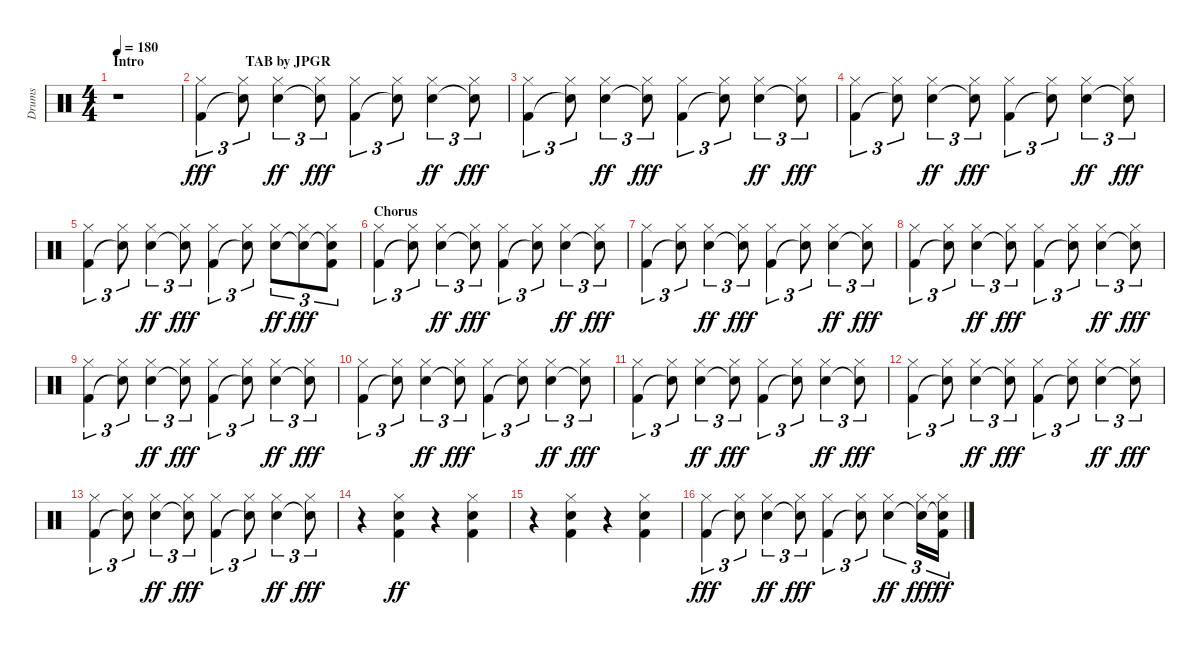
\track ("Drums" "Drums") {instrument percussion}
\staff {score}
\articulation defaults
\ts (4 4)
\section ("" "Intro                             TAB by JPGR")
\tempo 180
\clef neutral
\ks c
r.1{dy fff} |
("Hi-Hat (closed)" "Kick (hit) 2").4{tu (3 2)} ("Hi-Hat (closed)" "Snare (hit)"{t}).8{tu (3 2)} ("Hi-Hat (closed)" "Electric Snare (hit)").4{tu (3 2) dy ff} ("Hi-Hat (closed)" "Snare (hit)"{t}).8{tu (3 2) dy fff} ("Hi-Hat (closed)" "Kick (hit) 2").4{tu (3 2)} ("Hi-Hat (closed)" "Snare (hit)"{t}).8{tu (3 2)} ("Hi-Hat (closed)" "Electric Snare (hit)").4{tu (3 2) dy ff} ("Hi-Hat (closed)" "Snare (hit)"{t}).8{tu (3 2) dy fff} |
("Hi-Hat (closed)" "Kick (hit) 2").4{tu (3 2)} ("Hi-Hat (closed)" "Snare (hit)"{t}).8{tu (3 2)} ("Hi-Hat (closed)" "Electric Snare (hit)").4{tu (3 2) dy ff} ("Hi-Hat (closed)" "Snare (hit)"{t}).8{tu (3 2) dy fff} ("Hi-Hat (closed)" "Kick (hit) 2").4{tu (3 2)} ("Hi-Hat (closed)" "Snare (hit)"{t}).8{tu (3 2)} ("Hi-Hat (closed)" "Electric Snare (hit)").4{tu (3 2) dy ff} ("Hi-Hat (closed)" "Snare (hit)"{t}).8{tu (3 2) dy fff} |
("Hi-Hat (closed)" "Kick (hit) 2").4{tu (3 2)} ("Hi-Hat (closed)" "Snare (hit)"{t}).8{tu (3 2)} ("Hi-Hat (closed)" "Electric Snare (hit)").4{tu (3 2) dy ff} ("Hi-Hat (closed)" "Snare (hit)"{t}).8{tu (3 2) dy fff} ("Hi-Hat (closed)" "Kick (hit) 2").4{tu (3 2)} ("Hi-Hat (closed)" "Snare (hit)"{t}).8{tu (3 2)} ("Hi-Hat (closed)" "Electric Snare (hit)").4{tu (3 2) dy ff} ("Hi-Hat (closed)" "Snare (hit)"{t}).8{tu (3 2) dy fff} |
("Hi-Hat (closed)" "Kick (hit) 2").4{tu (3 2)} ("Hi-Hat (closed)" "Snare (hit)"{t}).8{tu (3 2)} ("Hi-Hat (closed)" "Electric Snare (hit)").4{tu (3 2) dy ff} ("Hi-Hat (closed)" "Snare (hit)"{t}).8{tu (3 2) dy fff} ("Hi-Hat (closed)" "Kick (hit) 2").4{tu (3 2)} ("Hi-Hat (closed)" "Snare (hit)"{t}).8{tu (3 2)} ("Hi-Hat (closed)" "Electric Snare (hit)").8{tu (3 2) dy ff} ("Hi-Hat (closed)" "Snare (hit)"{t}).8{tu (3 2) dy fff} ("Hi-Hat (closed)" "Snare (hit)"{t} "Kick (hit) 2").8{tu (3 2)} |
\section ("" "Chorus")
("Hi-Hat (closed)" "Kick (hit) 2").4{tu (3 2)} ("Hi-Hat (closed)" "Snare (hit)"{t}).8{tu (3 2)} ("Hi-Hat (closed)" "Electric Snare (hit)").4{tu (3 2) dy ff} ("Hi-Hat (closed)" "Snare (hit)"{t}).8{tu (3 2) dy fff} ("Hi-Hat (closed)" "Kick (hit) 2").4{tu (3 2)} ("Hi-Hat (closed)" "Snare (hit)"{t}).8{tu (3 2)} ("Hi-Hat (closed)" "Electric Snare (hit)").4{tu (3 2) dy ff} ("Hi-Hat (closed)" "Snare (hit)"{t}).8{tu (3 2) dy fff} |
("Hi-Hat (closed)" "Kick (hit) 2").4{tu (3 2)} ("Hi-Hat (closed)" "Snare (hit)"{t}).8{tu (3 2)} ("Hi-Hat (closed)" "Electric Snare (hit)").4{tu (3 2) dy ff} ("Hi-Hat (closed)" "Snare (hit)"{t}).8{tu (3 2) dy fff} ("Hi-Hat (closed)" "Kick (hit) 2").4{tu (3 2)} ("Hi-Hat (closed)" "Snare (hit)"{t}).8{tu (3 2)} ("Hi-Hat (closed)" "Electric Snare (hit)").4{tu (3 2) dy ff} ("Hi-Hat (closed)" "Snare (hit)"{t}).8{tu (3 2) dy fff} |
("Hi-Hat (closed)" "Kick (hit) 2").4{tu (3 2)} ("Hi-Hat (closed)" "Snare (hit)"{t}).8{tu (3 2)} ("Hi-Hat (closed)" "Electric Snare (hit)").4{tu (3 2) dy ff} ("Hi-Hat (closed)" "Snare (hit)"{t}).8{tu (3 2) dy fff} ("Hi-Hat (closed)" "Kick (hit) 2").4{tu (3 2)} ("Hi-Hat (closed)" "Snare (hit)"{t}).8{tu (3 2)} ("Hi-Hat (closed)" "Electric Snare (hit)").4{tu (3 2) dy ff} ("Hi-Hat (closed)" "Snare (hit)"{t}).8{tu (3 2) dy fff} |
("Hi-Hat (closed)" "Kick (hit) 2").4{tu (3 2)} ("Hi-Hat (closed)" "Snare (hit)"{t}).8{tu (3 2)} ("Hi-Hat (closed)" "Electric Snare (hit)").4{tu (3 2) dy ff} ("Hi-Hat (closed)" "Snare (hit)"{t}).8{tu (3 2) dy fff} ("Hi-Hat (closed)" "Kick (hit) 2").4{tu (3 2)} ("Hi-Hat (closed)" "Snare (hit)"{t}).8{tu (3 2)} ("Hi-Hat (closed)" "Electric Snare (hit)").4{tu (3 2) dy ff} ("Hi-Hat (closed)" "Snare (hit)"{t}).8{tu (3 2) dy fff} |
("Hi-Hat (closed)" "Kick (hit) 2").4{tu (3 2)} ("Hi-Hat (closed)" "Snare (hit)"{t}).8{tu (3 2)} ("Hi-Hat (closed)" "Electric Snare (hit)").4{tu (3 2) dy ff} ("Hi-Hat (closed)" "Snare (hit)"{t}).8{tu (3 2) dy fff} ("Hi-Hat (closed)" "Kick (hit) 2").4{tu (3 2)} ("Hi-Hat (closed)" "Snare (hit)"{t}).8{tu (3 2)} ("Hi-Hat (closed)" "Electric Snare (hit)").4{tu (3 2) dy ff} ("Hi-Hat (closed)" "Snare (hit)"{t}).8{tu (3 2) dy fff} |
("Hi-Hat (closed)" "Kick (hit) 2").4{tu (3 2)} ("Hi-Hat (closed)" "Snare (hit)"{t}).8{tu (3 2)} ("Hi-Hat (closed)" "Electric Snare (hit)").4{tu (3 2) dy ff} ("Hi-Hat (closed)" "Snare (hit)"{t}).8{tu (3 2) dy fff} ("Hi-Hat (closed)" "Kick (hit) 2").4{tu (3 2)} ("Hi-Hat (closed)" "Snare (hit)"{t}).8{tu (3 2)} ("Hi-Hat (closed)" "Electric Snare (hit)").4{tu (3 2) dy ff} ("Hi-Hat (closed)" "Snare (hit)"{t}).8{tu (3 2) dy fff} |
("Hi-Hat (closed)" "Kick (hit) 2").4{tu (3 2)} ("Hi-Hat (closed)" "Snare (hit)"{t}).8{tu (3 2)} ("Hi-Hat (closed)" "Electric Snare (hit)").4{tu (3 2) dy ff} ("Hi-Hat (closed)" "Snare (hit)"{t}).8{tu (3 2) dy fff} ("Hi-Hat (closed)" "Kick (hit) 2").4{tu (3 2)} ("Hi-Hat (closed)" "Snare (hit)"{t}).8{tu (3 2)} ("Hi-Hat (closed)" "Electric Snare (hit)").4{tu (3 2) dy ff} ("Hi-Hat (closed)" "Snare (hit)"{t}).8{tu (3 2) dy fff} |
("Hi-Hat (closed)" "Kick (hit) 2").4{tu (3 2)} ("Hi-Hat (closed)" "Snare (hit)"{t}).8{tu (3 2)} ("Hi-Hat (closed)" "Electric Snare (hit)").4{tu (3 2) dy ff} ("Hi-Hat (closed)" "Snare (hit)"{t}).8{tu (3 2) dy fff} ("Hi-Hat (closed)" "Kick (hit) 2").4{tu (3 2)} ("Hi-Hat (closed)" "Snare (hit)"{t}).8{tu (3 2)} ("Hi-Hat (closed)" "Electric Snare (hit)").4{tu (3 2) dy ff} ("Hi-Hat (closed)" "Snare (hit)"{t}).8{tu (3 2) dy fff} |
r.4 ("Hi-Hat (closed)" "Electric Snare (hit)" "Kick (hit) 2").4{dy ff} r.4 ("Hi-Hat (closed)" "Electric Snare (hit)" "Kick (hit) 2").4 |
r.4 ("Hi-Hat (closed)" "Electric Snare (hit)" "Kick (hit) 2").4 r.4 ("Hi-Hat (closed)" "Electric Snare (hit)" "Kick (hit) 2").4 |
("Hi-Hat (closed)" "Kick (hit) 2").4{tu (3 2) dy fff} ("Hi-Hat (closed)" "Snare (hit)"{t}).8{tu (3 2)} ("Hi-Hat (closed)" "Electric Snare (hit)").4{tu (3 2) dy ff} ("Hi-Hat (closed)" "Snare (hit)"{t}).8{tu (3 2) dy fff} ("Hi-Hat (closed)" "Kick (hit) 2").4{tu (3 2)} ("Hi-Hat (closed)" "Snare (hit)"{t}).8{tu (3 2)} ("Hi-Hat (closed)" "Electric Snare (hit)").4{tu (3 2) dy ff} ("Hi-Hat (closed)" "Snare (hit)"{t}).16{tu (3 2) dy fff} ("Hi-Hat (closed)" "Snare (hit)"{t} "Kick (hit) 2").16{tu (3 2) dy ff}
